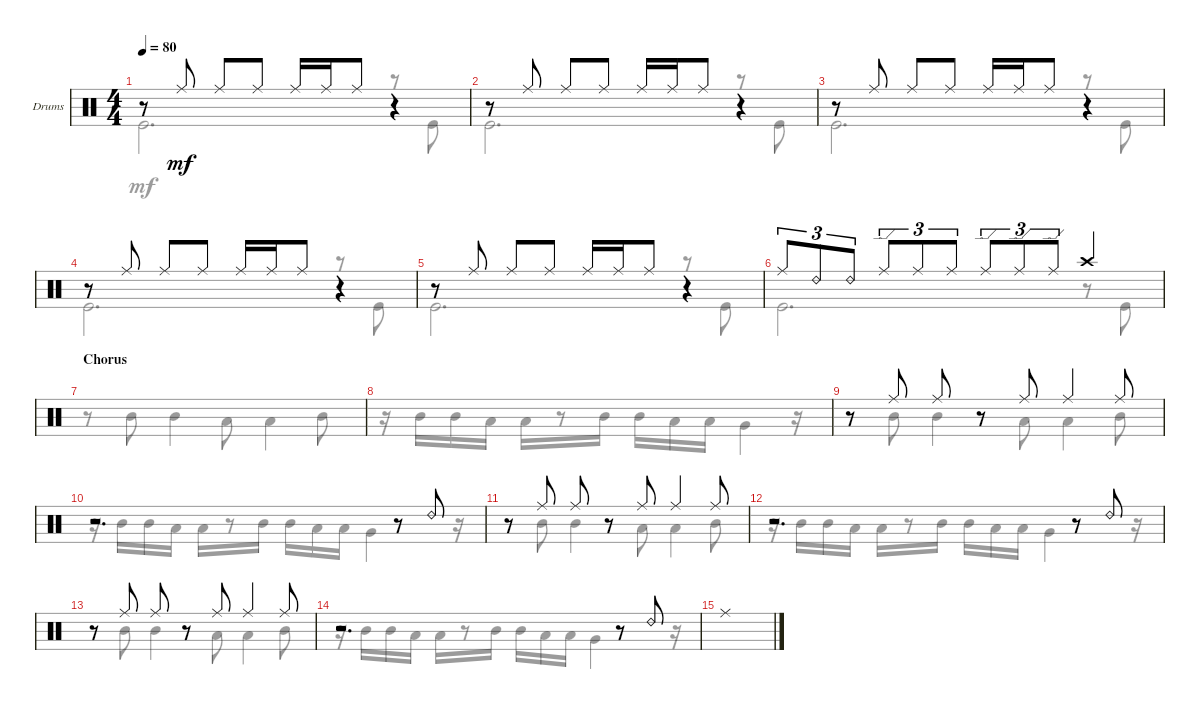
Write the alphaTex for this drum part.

\defaultSystemsLayout 4
\bracketExtendMode groupsimilarinstruments
\firstSystemTrackNameOrientation horizontal
\otherSystemsTrackNameOrientation horizontal
\track ("Drumkit" "Drums") {instrument percussion}
\staff {score}
\articulation defaults
\voice
\ts (4 4)
\tempo 80
\clef neutral
\ks c
r.8{dy mf} "Ride (middle)".8 "Ride (middle)".8 "Ride (middle)".8 "Ride (middle)".16 "Ride (middle)".16 "Ride (middle)".8 r.4 |
r.8 "Ride (middle)".8 "Ride (middle)".8 "Ride (middle)".8 "Ride (middle)".16 "Ride (middle)".16 "Ride (middle)".8 r.4 |
r.8 "Ride (middle)".8 "Ride (middle)".8 "Ride (middle)".8 "Ride (middle)".16 "Ride (middle)".16 "Ride (middle)".8 r.4 |
r.8 "Ride (middle)".8 "Ride (middle)".8 "Ride (middle)".8 "Ride (middle)".16 "Ride (middle)".16 "Ride (middle)".8 r.4 |
r.8 "Ride (middle)".8 "Ride (middle)".8 "Ride (middle)".8 "Ride (middle)".16 "Ride (middle)".16 "Ride (middle)".8 r.4 |
"Ride (middle)".8{tu (3 2)} "Ride (bell) 2".8{tu (3 2)} "Ride (bell) 2".8{tu (3 2)} "Ride (edge)".8{tu (3 2)} "Ride (middle)".8{tu (3 2)} "Ride (middle)".8{tu (3 2)} "Ride (edge)".8{tu (3 2)} "Ride (edge)".8{tu (3 2)} "Ride (edge)".8{tu (3 2)} "Crash high (hit)".4 |
\section ("" "Chorus")
|
|
r.8 "Ride (middle)".8 "Ride (middle)".8 r.8 "Ride (middle)".8 "Ride (middle)".4 "Ride (middle)".8 |
r.2{d} r.8 "Ride (bell) 2".8 |
\scale
0.213559 r.8 "Ride (middle)".8 "Ride (middle)".8 r.8 "Ride (middle)".8 "Ride (middle)".4 "Ride (middle)".8 |
\scale
0.298305 r.2{d} r.8 "Ride (bell) 2".8 |
\scale
0.184121 r.8 "Ride (middle)".8 "Ride (middle)".8 r.8 "Ride (middle)".8 "Ride (middle)".4 "Ride (middle)".8 |
\scale
0.303987 r.2{d} r.8 "Ride (bell) 2".8 |
"Ride (middle)".1 |
\voice
\clef neutral
\ottava regular
\simile none
\ks c "Kick (hit)".2{d dy mf}
r.8 "Kick (hit)".8 |
"Kick (hit)".2{d} r.8 "Kick (hit)".8 |
"Kick (hit)".2{d} r.8 "Kick (hit)".8 |
"Kick (hit)".2{d} r.8 "Kick (hit)".8 |
"Kick (hit)".2{d} r.8 "Kick (hit)".8 |
"Kick (hit)".2{d} r.8 "Kick (hit)".8 |
r.8 "Mid Tom (hit)".8 "Mid Tom (hit)".4 "Low Tom (hit)".8 "Low Tom (hit)".4 "Mid Tom (hit)".8 |
r.16 "Mid Tom (hit)".16 "Mid Tom (hit)".16 "Low Tom (hit)".16 "Low Tom (hit)".16 r.8 "Mid Tom (hit)".16 "Mid Tom (hit)".16 "Low Tom (hit)".16 "Low Tom (hit)".16 "Very Low Tom (hit)".4 r.16 |
r.8 "Mid Tom (hit)".8 "Mid Tom (hit)".4 "Low Tom (hit)".8 "Low Tom (hit)".4 "Mid Tom (hit)".8 |
r.16 "Mid Tom (hit)".16 "Mid Tom (hit)".16 "Low Tom (hit)".16 "Low Tom (hit)".16 r.8 "Mid Tom (hit)".16 "Mid Tom (hit)".16 "Low Tom (hit)".16 "Low Tom (hit)".16 "Very Low Tom (hit)".4 r.16 |
\scale
0.213559 r.8 "Mid Tom (hit)".8 "Mid Tom (hit)".4 "Low Tom (hit)".8 "Low Tom (hit)".4 "Mid Tom (hit)".8 |
\scale
0.298305 r.16 "Mid Tom (hit)".16 "Mid Tom (hit)".16 "Low Tom (hit)".16 "Low Tom (hit)".16 r.8 "Mid Tom (hit)".16 "Mid Tom (hit)".16 "Low Tom (hit)".16 "Low Tom (hit)".16 "Very Low Tom (hit)".4 r.16 |
\scale
0.184121 r.8 "Mid Tom (hit)".8 "Mid Tom (hit)".4 "Low Tom (hit)".8 "Low Tom (hit)".4 "Mid Tom (hit)".8 |
\scale
0.303987 r.16 "Mid Tom (hit)".16 "Mid Tom (hit)".16 "Low Tom (hit)".16 "Low Tom (hit)".16 r.8 "Mid Tom (hit)".16 "Mid Tom (hit)".16 "Low Tom (hit)".16 "Low Tom (hit)".16 "Very Low Tom (hit)".4 r.16 |
|
